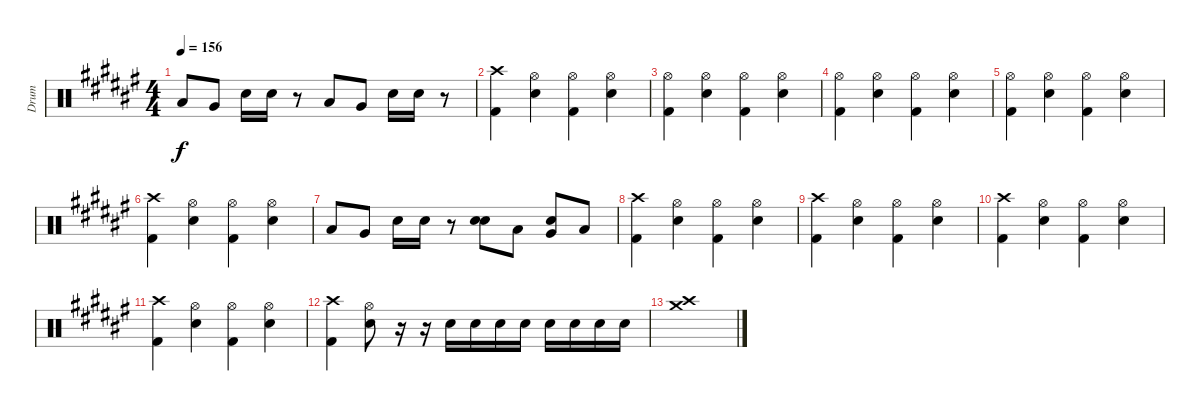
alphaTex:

\track ("Drum" "Drum") {instrument percussion}
\staff {score}
\articulation defaults
\ts (4 4)
\tempo 156
\clef neutral
\ks f# "Low Tom (hit)".8{dy f} "Very Low Tom (hit)".8 "Electric Snare (hit)".16 "Electric Snare (hit)".16
r.8 "Low Tom (hit)".8 "Very Low Tom (hit)".8 "Electric Snare (hit)".16 "Electric Snare (hit)".16 r.8 |
("Crash high (hit)" "Kick (hit) 2").4 ("Hi-Hat (open)" "Electric Snare (hit)").4 ("Hi-Hat (open)" "Kick (hit) 2").4 ("Hi-Hat (open)" "Electric Snare (hit)").4 |
("Hi-Hat (open)" "Kick (hit) 2").4 ("Hi-Hat (open)" "Electric Snare (hit)").4 ("Hi-Hat (open)" "Kick (hit) 2").4 ("Hi-Hat (open)" "Electric Snare (hit)").4 |
("Hi-Hat (open)" "Kick (hit) 2").4 ("Hi-Hat (open)" "Electric Snare (hit)").4 ("Hi-Hat (open)" "Kick (hit) 2").4 ("Hi-Hat (open)" "Electric Snare (hit)").4 |
("Hi-Hat (open)" "Kick (hit) 2").4 ("Hi-Hat (open)" "Electric Snare (hit)").4 ("Hi-Hat (open)" "Kick (hit) 2").4 ("Hi-Hat (open)" "Electric Snare (hit)").4 |
("Crash high (hit)" "Kick (hit) 2").4 ("Hi-Hat (open)" "Electric Snare (hit)").4 ("Hi-Hat (open)" "Kick (hit) 2").4 ("Hi-Hat (open)" "Electric Snare (hit)").4 |
"Low Tom (hit)".8 "Very Low Tom (hit)".8 "Electric Snare (hit)".16 "Electric Snare (hit)".16 r.8 ("Snare (hit)" "Electric Snare (hit)").8 "Low Tom (hit)".8 ("Very Low Tom (hit)" "Snare (hit)").8 "Low Floor Tom (hit)".8 |
("Crash high (hit)" "Kick (hit) 2").4 ("Hi-Hat (open)" "Electric Snare (hit)").4 ("Hi-Hat (open)" "Kick (hit) 2").4 ("Hi-Hat (open)" "Electric Snare (hit)").4 |
("Crash high (hit)" "Kick (hit) 2").4 ("Hi-Hat (open)" "Electric Snare (hit)").4 ("Hi-Hat (open)" "Kick (hit) 2").4 ("Hi-Hat (open)" "Electric Snare (hit)").4 |
("Crash high (hit)" "Kick (hit) 2").4 ("Hi-Hat (open)" "Electric Snare (hit)").4 ("Hi-Hat (open)" "Kick (hit) 2").4 ("Hi-Hat (open)" "Electric Snare (hit)").4 |
("Crash high (hit)" "Kick (hit) 2").4 ("Hi-Hat (open)" "Electric Snare (hit)").4 ("Hi-Hat (open)" "Kick (hit) 2").4 ("Hi-Hat (open)" "Electric Snare (hit)").4 |
("Crash high (hit)" "Kick (hit) 2").4 ("Hi-Hat (open)" "Electric Snare (hit)").8 r.16 r.16 "Electric Snare (hit)".16 "Electric Snare (hit)".16 "Electric Snare (hit)".16 "Electric Snare (hit)".16 "Electric Snare (hit)".16 "Electric Snare (hit)".16 "Electric Snare (hit)".16 "Electric Snare (hit)".16 |
("Crash high (hit)" "Crash medium (hit)").1
